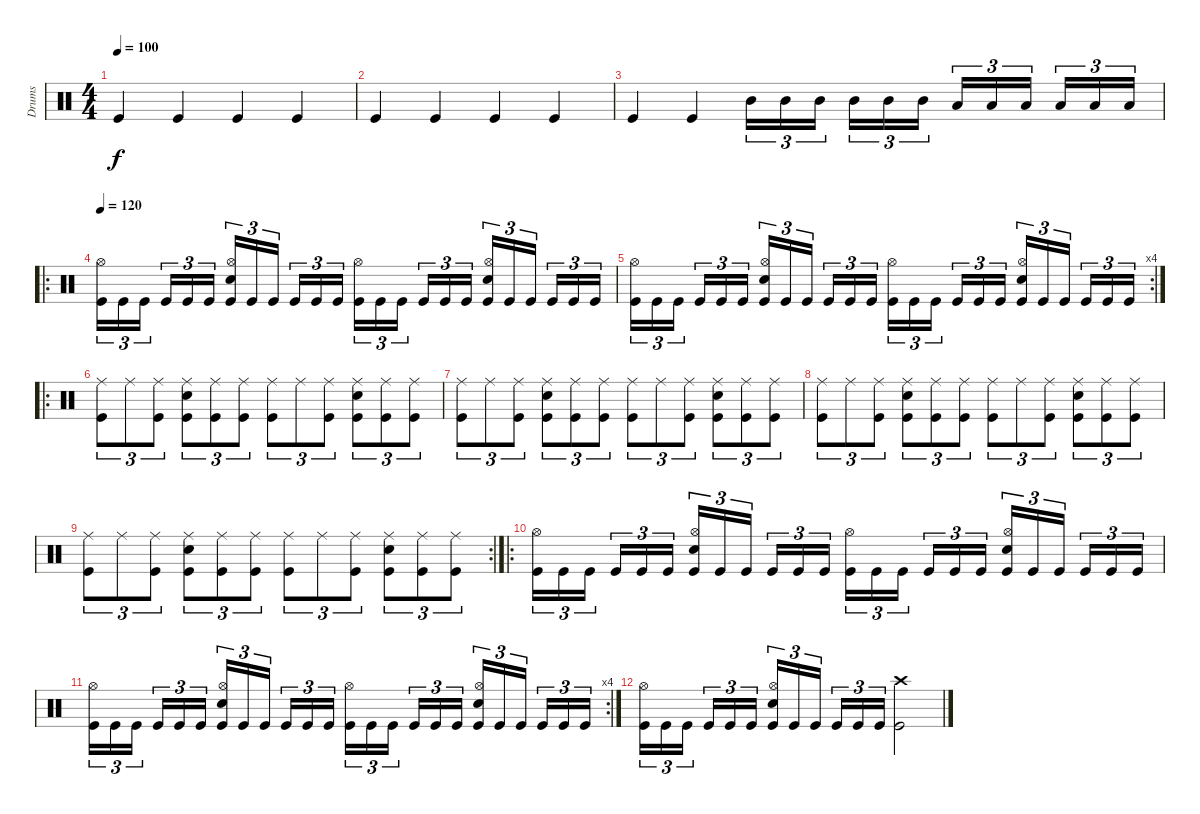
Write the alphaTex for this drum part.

\track ("Drums" "Drums") {instrument percussion}
\staff {score}
\articulation defaults
\ts (4 4)
\tempo 100
\clef neutral
\ks c "Kick (hit)".4{dy f} "Kick (hit)".4 "Kick (hit)".4 "Kick (hit)".4
|
"Kick (hit)".4 "Kick (hit)".4 "Kick (hit)".4 "Kick (hit)".4 |
"Kick (hit)".4 "Kick (hit)".4 "Mid Tom (hit)".16{tu (3 2)} "Mid Tom (hit)".16{tu (3 2)} "Mid Tom (hit)".16{tu (3 2) beam splitsecondary} "Mid Tom (hit)".16{tu (3 2)} "Mid Tom (hit)".16{tu (3 2)} "Mid Tom (hit)".16{tu (3 2)} "Low Tom (hit)".16{tu (3 2)} "Low Tom (hit)".16{tu (3 2)} "Low Tom (hit)".16{tu (3 2) beam splitsecondary} "Low Tom (hit)".16{tu (3 2)} "Low Tom (hit)".16{tu (3 2)} "Low Tom (hit)".16{tu (3 2)} |
\ro
\tempo 120
("Hi-Hat (open)" "Kick (hit)").16{tu (3 2)} "Kick (hit)".16{tu (3 2)} "Kick (hit)".16{tu (3 2) beam splitsecondary} "Kick (hit)".16{tu (3 2)} "Kick (hit)".16{tu (3 2)} "Kick (hit)".16{tu (3 2)} ("Snare (hit) 2" "Hi-Hat (open)" "Kick (hit)").16{tu (3 2)} "Kick (hit)".16{tu (3 2)} "Kick (hit)".16{tu (3 2) beam splitsecondary} "Kick (hit)".16{tu (3 2)} "Kick (hit)".16{tu (3 2)} "Kick (hit)".16{tu (3 2)} ("Hi-Hat (open)" "Kick (hit)").16{tu (3 2)} "Kick (hit)".16{tu (3 2)} "Kick (hit)".16{tu (3 2) beam splitsecondary} "Kick (hit)".16{tu (3 2)} "Kick (hit)".16{tu (3 2)} "Kick (hit)".16{tu (3 2)} ("Snare (hit) 2" "Hi-Hat (open)" "Kick (hit)").16{tu (3 2)} "Kick (hit)".16{tu (3 2)} "Kick (hit)".16{tu (3 2) beam splitsecondary} "Kick (hit)".16{tu (3 2)} "Kick (hit)".16{tu (3 2)} "Kick (hit)".16{tu (3 2)} |
\rc 4
("Hi-Hat (open)" "Kick (hit)").16{tu (3 2)} "Kick (hit)".16{tu (3 2)} "Kick (hit)".16{tu (3 2) beam splitsecondary} "Kick (hit)".16{tu (3 2)} "Kick (hit)".16{tu (3 2)} "Kick (hit)".16{tu (3 2)} ("Snare (hit) 2" "Hi-Hat (open)" "Kick (hit)").16{tu (3 2)} "Kick (hit)".16{tu (3 2)} "Kick (hit)".16{tu (3 2) beam splitsecondary} "Kick (hit)".16{tu (3 2)} "Kick (hit)".16{tu (3 2)} "Kick (hit)".16{tu (3 2)} ("Hi-Hat (open)" "Kick (hit)").16{tu (3 2)} "Kick (hit)".16{tu (3 2)} "Kick (hit)".16{tu (3 2) beam splitsecondary} "Kick (hit)".16{tu (3 2)} "Kick (hit)".16{tu (3 2)} "Kick (hit)".16{tu (3 2)} ("Snare (hit) 2" "Hi-Hat (open)" "Kick (hit)").16{tu (3 2)} "Kick (hit)".16{tu (3 2)} "Kick (hit)".16{tu (3 2) beam splitsecondary} "Kick (hit)".16{tu (3 2)} "Kick (hit)".16{tu (3 2)} "Kick (hit)".16{tu (3 2)} |
\ro
("Kick (hit)" "Ride (middle)").8{tu (3 2)} "Ride (middle)".8{tu (3 2)} ("Kick (hit)" "Ride (middle)").8{tu (3 2)} ("Snare (hit) 2" "Kick (hit)" "Ride (middle)").8{tu (3 2)} ("Kick (hit)" "Ride (middle)").8{tu (3 2)} ("Kick (hit)" "Ride (middle)").8{tu (3 2)} ("Kick (hit)" "Ride (middle)").8{tu (3 2)} "Ride (middle)".8{tu (3 2)} ("Kick (hit)" "Ride (middle)").8{tu (3 2)} ("Snare (hit) 2" "Kick (hit)" "Ride (middle)").8{tu (3 2)} ("Kick (hit)" "Ride (middle)").8{tu (3 2)} ("Kick (hit)" "Ride (middle)").8{tu (3 2)} |
("Kick (hit)" "Ride (middle)").8{tu (3 2)} "Ride (middle)".8{tu (3 2)} ("Kick (hit)" "Ride (middle)").8{tu (3 2)} ("Snare (hit) 2" "Kick (hit)" "Ride (middle)").8{tu (3 2)} ("Kick (hit)" "Ride (middle)").8{tu (3 2)} ("Kick (hit)" "Ride (middle)").8{tu (3 2)} ("Kick (hit)" "Ride (middle)").8{tu (3 2)} "Ride (middle)".8{tu (3 2)} ("Kick (hit)" "Ride (middle)").8{tu (3 2)} ("Snare (hit) 2" "Kick (hit)" "Ride (middle)").8{tu (3 2)} ("Kick (hit)" "Ride (middle)").8{tu (3 2)} ("Kick (hit)" "Ride (middle)").8{tu (3 2)} |
("Kick (hit)" "Ride (middle)").8{tu (3 2)} "Ride (middle)".8{tu (3 2)} ("Kick (hit)" "Ride (middle)").8{tu (3 2)} ("Snare (hit) 2" "Kick (hit)" "Ride (middle)").8{tu (3 2)} ("Kick (hit)" "Ride (middle)").8{tu (3 2)} ("Kick (hit)" "Ride (middle)").8{tu (3 2)} ("Kick (hit)" "Ride (middle)").8{tu (3 2)} "Ride (middle)".8{tu (3 2)} ("Kick (hit)" "Ride (middle)").8{tu (3 2)} ("Snare (hit) 2" "Kick (hit)" "Ride (middle)").8{tu (3 2)} ("Kick (hit)" "Ride (middle)").8{tu (3 2)} ("Kick (hit)" "Ride (middle)").8{tu (3 2)} |
\rc 2
("Kick (hit)" "Ride (middle)").8{tu (3 2)} "Ride (middle)".8{tu (3 2)} ("Kick (hit)" "Ride (middle)").8{tu (3 2)} ("Snare (hit) 2" "Kick (hit)" "Ride (middle)").8{tu (3 2)} ("Kick (hit)" "Ride (middle)").8{tu (3 2)} ("Kick (hit)" "Ride (middle)").8{tu (3 2)} ("Kick (hit)" "Ride (middle)").8{tu (3 2)} "Ride (middle)".8{tu (3 2)} ("Kick (hit)" "Ride (middle)").8{tu (3 2)} ("Snare (hit) 2" "Kick (hit)" "Ride (middle)").8{tu (3 2)} ("Kick (hit)" "Ride (middle)").8{tu (3 2)} ("Kick (hit)" "Ride (middle)").8{tu (3 2)} |
\ro
("Hi-Hat (open)" "Kick (hit)").16{tu (3 2)} "Kick (hit)".16{tu (3 2)} "Kick (hit)".16{tu (3 2) beam splitsecondary} "Kick (hit)".16{tu (3 2)} "Kick (hit)".16{tu (3 2)} "Kick (hit)".16{tu (3 2)} ("Snare (hit) 2" "Hi-Hat (open)" "Kick (hit)").16{tu (3 2)} "Kick (hit)".16{tu (3 2)} "Kick (hit)".16{tu (3 2) beam splitsecondary} "Kick (hit)".16{tu (3 2)} "Kick (hit)".16{tu (3 2)} "Kick (hit)".16{tu (3 2)} ("Hi-Hat (open)" "Kick (hit)").16{tu (3 2)} "Kick (hit)".16{tu (3 2)} "Kick (hit)".16{tu (3 2) beam splitsecondary} "Kick (hit)".16{tu (3 2)} "Kick (hit)".16{tu (3 2)} "Kick (hit)".16{tu (3 2)} ("Snare (hit) 2" "Hi-Hat (open)" "Kick (hit)").16{tu (3 2)} "Kick (hit)".16{tu (3 2)} "Kick (hit)".16{tu (3 2) beam splitsecondary} "Kick (hit)".16{tu (3 2)} "Kick (hit)".16{tu (3 2)} "Kick (hit)".16{tu (3 2)} |
\rc 4
("Hi-Hat (open)" "Kick (hit)").16{tu (3 2)} "Kick (hit)".16{tu (3 2)} "Kick (hit)".16{tu (3 2) beam splitsecondary} "Kick (hit)".16{tu (3 2)} "Kick (hit)".16{tu (3 2)} "Kick (hit)".16{tu (3 2)} ("Snare (hit) 2" "Hi-Hat (open)" "Kick (hit)").16{tu (3 2)} "Kick (hit)".16{tu (3 2)} "Kick (hit)".16{tu (3 2) beam splitsecondary} "Kick (hit)".16{tu (3 2)} "Kick (hit)".16{tu (3 2)} "Kick (hit)".16{tu (3 2)} ("Hi-Hat (open)" "Kick (hit)").16{tu (3 2)} "Kick (hit)".16{tu (3 2)} "Kick (hit)".16{tu (3 2) beam splitsecondary} "Kick (hit)".16{tu (3 2)} "Kick (hit)".16{tu (3 2)} "Kick (hit)".16{tu (3 2)} ("Snare (hit) 2" "Hi-Hat (open)" "Kick (hit)").16{tu (3 2)} "Kick (hit)".16{tu (3 2)} "Kick (hit)".16{tu (3 2) beam splitsecondary} "Kick (hit)".16{tu (3 2)} "Kick (hit)".16{tu (3 2)} "Kick (hit)".16{tu (3 2)} |
("Hi-Hat (open)" "Kick (hit)").16{tu (3 2)} "Kick (hit)".16{tu (3 2)} "Kick (hit)".16{tu (3 2) beam splitsecondary} "Kick (hit)".16{tu (3 2)} "Kick (hit)".16{tu (3 2)} "Kick (hit)".16{tu (3 2)} ("Snare (hit) 2" "Hi-Hat (open)" "Kick (hit)").16{tu (3 2)} "Kick (hit)".16{tu (3 2)} "Kick (hit)".16{tu (3 2) beam splitsecondary} "Kick (hit)".16{tu (3 2)} "Kick (hit)".16{tu (3 2)} "Kick (hit)".16{tu (3 2)} ("Kick (hit)" "Crash high (hit)").2
